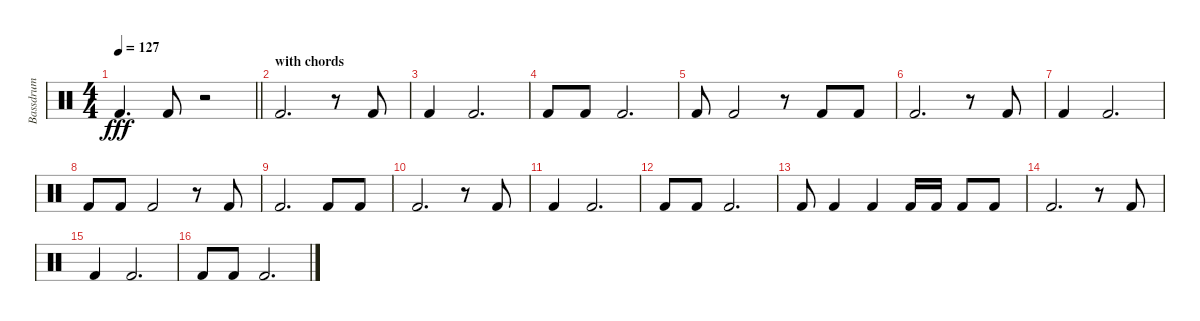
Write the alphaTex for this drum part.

\track ("Bassdrum" "Bassdrum") {instrument percussion}
\staff {score}
\articulation defaults
\ts (4 4)
\tempo 127
\clef neutral
\barLineRight lightlight
\ks c "Kick (hit) 2".4{d dy fff} "Kick (hit) 2".8
r.2 |
\section ("" "with chords")
"Kick (hit) 2".2{d} r.8 "Kick (hit) 2".8 |
"Kick (hit) 2".4 "Kick (hit) 2".2{d} |
"Kick (hit) 2".8 "Kick (hit) 2".8 "Kick (hit) 2".2{d} |
"Kick (hit) 2".8 "Kick (hit) 2".2 r.8 "Kick (hit) 2".8 "Kick (hit) 2".8 |
"Kick (hit) 2".2{d} r.8 "Kick (hit) 2".8 |
"Kick (hit) 2".4 "Kick (hit) 2".2{d} |
"Kick (hit) 2".8 "Kick (hit) 2".8 "Kick (hit) 2".2 r.8 "Kick (hit) 2".8 |
"Kick (hit) 2".2{d} "Kick (hit) 2".8 "Kick (hit) 2".8 |
"Kick (hit) 2".2{d} r.8 "Kick (hit) 2".8 |
"Kick (hit) 2".4 "Kick (hit) 2".2{d} |
"Kick (hit) 2".8 "Kick (hit) 2".8 "Kick (hit) 2".2{d} |
"Kick (hit) 2".8 "Kick (hit) 2".4 "Kick (hit) 2".4 "Kick (hit) 2".16 "Kick (hit) 2".16 "Kick (hit) 2".8 "Kick (hit) 2".8 |
"Kick (hit) 2".2{d} r.8 "Kick (hit) 2".8 |
"Kick (hit) 2".4 "Kick (hit) 2".2{d} |
"Kick (hit) 2".8 "Kick (hit) 2".8 "Kick (hit) 2".2{d}
